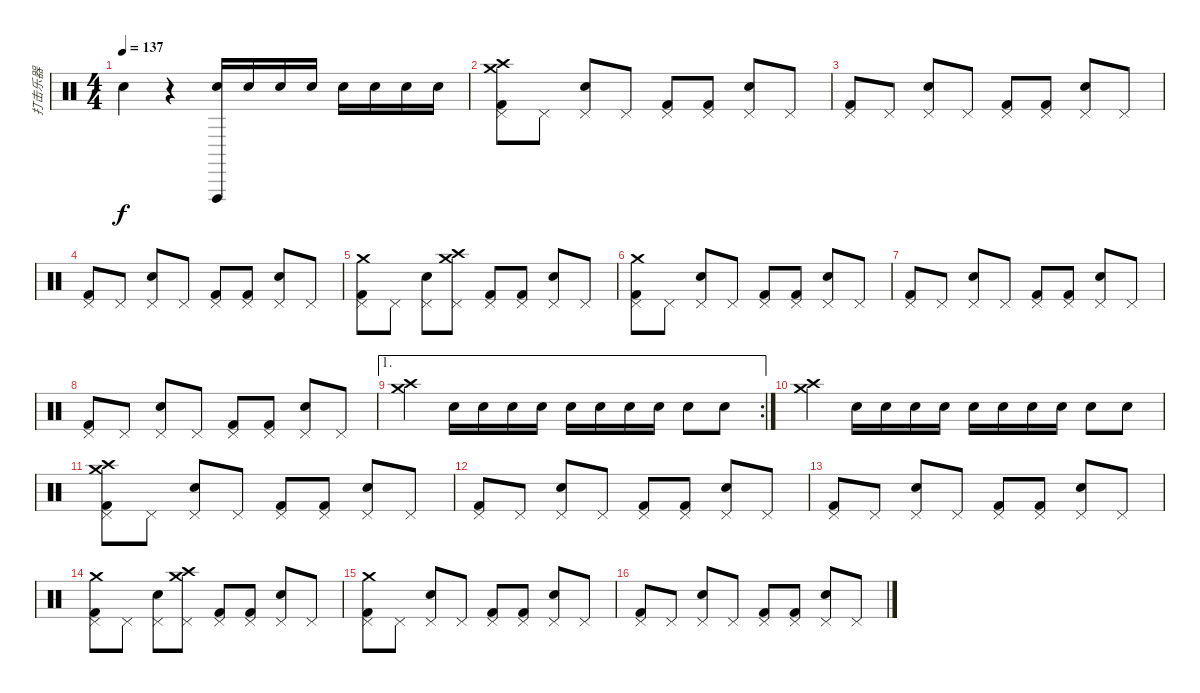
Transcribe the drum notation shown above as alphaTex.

\track ("打击乐器" "打击乐器") {instrument percussion}
\staff {score}
\articulation defaults
\ts (4 4)
\tempo 137
\clef neutral
\ks c "Snare (hit) 2".4{dy f}
r.4 ("Vibraslap (hit)" "Electric Snare (hit)").16 "Electric Snare (hit)".16 "Electric Snare (hit)".16 "Electric Snare (hit)".16 "Electric Snare (hit)".16 "Electric Snare (hit)".16 "Snare (hit) 2".16 "Electric Snare (hit)".16 |
("Crash high (hit)" "Crash medium (hit)" "Pedal Hi-Hat (hit)" "Kick (hit) 2").8 "Pedal Hi-Hat (hit)".8 ("Snare (hit) 2" "Pedal Hi-Hat (hit)").8 "Pedal Hi-Hat (hit)".8 ("Pedal Hi-Hat (hit)" "Kick (hit) 2").8 ("Pedal Hi-Hat (hit)" "Kick (hit) 2").8 ("Snare (hit) 2" "Pedal Hi-Hat (hit)").8 "Pedal Hi-Hat (hit)".8 |
("Pedal Hi-Hat (hit)" "Kick (hit) 2").8 "Pedal Hi-Hat (hit)".8 ("Snare (hit) 2" "Pedal Hi-Hat (hit)").8 "Pedal Hi-Hat (hit)".8 ("Pedal Hi-Hat (hit)" "Kick (hit) 2").8 ("Pedal Hi-Hat (hit)" "Kick (hit) 2").8 ("Snare (hit) 2" "Pedal Hi-Hat (hit)").8 "Pedal Hi-Hat (hit)".8 |
("Pedal Hi-Hat (hit)" "Kick (hit) 2").8 "Pedal Hi-Hat (hit)".8 ("Snare (hit) 2" "Pedal Hi-Hat (hit)").8 "Pedal Hi-Hat (hit)".8 ("Pedal Hi-Hat (hit)" "Kick (hit) 2").8 ("Pedal Hi-Hat (hit)" "Kick (hit) 2").8 ("Snare (hit) 2" "Pedal Hi-Hat (hit)").8 "Pedal Hi-Hat (hit)".8 |
("Crash medium (hit)" "Pedal Hi-Hat (hit)" "Kick (hit) 2").8 "Pedal Hi-Hat (hit)".8 ("Snare (hit) 2" "Pedal Hi-Hat (hit)").8 ("Crash medium (hit)" "Crash high (hit)" "Pedal Hi-Hat (hit)").8 ("Pedal Hi-Hat (hit)" "Kick (hit) 2").8 ("Pedal Hi-Hat (hit)" "Kick (hit) 2").8 ("Snare (hit) 2" "Pedal Hi-Hat (hit)").8 "Pedal Hi-Hat (hit)".8 |
("Crash medium (hit)" "Pedal Hi-Hat (hit)" "Kick (hit) 2").8 "Pedal Hi-Hat (hit)".8 ("Snare (hit) 2" "Pedal Hi-Hat (hit)").8 "Pedal Hi-Hat (hit)".8 ("Pedal Hi-Hat (hit)" "Kick (hit) 2").8 ("Pedal Hi-Hat (hit)" "Kick (hit) 2").8 ("Snare (hit) 2" "Pedal Hi-Hat (hit)").8 "Pedal Hi-Hat (hit)".8 |
("Pedal Hi-Hat (hit)" "Kick (hit) 2").8 "Pedal Hi-Hat (hit)".8 ("Snare (hit) 2" "Pedal Hi-Hat (hit)").8 "Pedal Hi-Hat (hit)".8 ("Pedal Hi-Hat (hit)" "Kick (hit) 2").8 ("Pedal Hi-Hat (hit)" "Kick (hit) 2").8 ("Snare (hit) 2" "Pedal Hi-Hat (hit)").8 "Pedal Hi-Hat (hit)".8 |
("Pedal Hi-Hat (hit)" "Kick (hit) 2").8 "Pedal Hi-Hat (hit)".8 ("Snare (hit) 2" "Pedal Hi-Hat (hit)").8 "Pedal Hi-Hat (hit)".8 ("Pedal Hi-Hat (hit)" "Kick (hit) 2").8 ("Pedal Hi-Hat (hit)" "Kick (hit) 2").8 ("Snare (hit) 2" "Pedal Hi-Hat (hit)").8 "Pedal Hi-Hat (hit)".8 |
\ae 1
\rc 2
("Crash high (hit)" "Crash medium (hit)").4 "Electric Snare (hit)".16 "Electric Snare (hit)".16 "Electric Snare (hit)".16 "Electric Snare (hit)".16 "Electric Snare (hit)".16 "Electric Snare (hit)".16 "Electric Snare (hit)".16 "Electric Snare (hit)".16 "Electric Snare (hit)".8 "Snare (hit) 2".8 |
("Crash high (hit)" "Crash medium (hit)").4 "Electric Snare (hit)".16 "Electric Snare (hit)".16 "Electric Snare (hit)".16 "Electric Snare (hit)".16 "Electric Snare (hit)".16 "Electric Snare (hit)".16 "Electric Snare (hit)".16 "Electric Snare (hit)".16 "Electric Snare (hit)".8 "Snare (hit) 2".8 |
("Crash high (hit)" "Crash medium (hit)" "Pedal Hi-Hat (hit)" "Kick (hit) 2").8 "Pedal Hi-Hat (hit)".8 ("Snare (hit) 2" "Pedal Hi-Hat (hit)").8 "Pedal Hi-Hat (hit)".8 ("Pedal Hi-Hat (hit)" "Kick (hit) 2").8 ("Pedal Hi-Hat (hit)" "Kick (hit) 2").8 ("Snare (hit) 2" "Pedal Hi-Hat (hit)").8 "Pedal Hi-Hat (hit)".8 |
("Pedal Hi-Hat (hit)" "Kick (hit) 2").8 "Pedal Hi-Hat (hit)".8 ("Snare (hit) 2" "Pedal Hi-Hat (hit)").8 "Pedal Hi-Hat (hit)".8 ("Pedal Hi-Hat (hit)" "Kick (hit) 2").8 ("Pedal Hi-Hat (hit)" "Kick (hit) 2").8 ("Snare (hit) 2" "Pedal Hi-Hat (hit)").8 "Pedal Hi-Hat (hit)".8 |
("Pedal Hi-Hat (hit)" "Kick (hit) 2").8 "Pedal Hi-Hat (hit)".8 ("Snare (hit) 2" "Pedal Hi-Hat (hit)").8 "Pedal Hi-Hat (hit)".8 ("Pedal Hi-Hat (hit)" "Kick (hit) 2").8 ("Pedal Hi-Hat (hit)" "Kick (hit) 2").8 ("Snare (hit) 2" "Pedal Hi-Hat (hit)").8 "Pedal Hi-Hat (hit)".8 |
("Crash medium (hit)" "Pedal Hi-Hat (hit)" "Kick (hit) 2").8 "Pedal Hi-Hat (hit)".8 ("Snare (hit) 2" "Pedal Hi-Hat (hit)").8 ("Crash medium (hit)" "Crash high (hit)" "Pedal Hi-Hat (hit)").8 ("Pedal Hi-Hat (hit)" "Kick (hit) 2").8 ("Pedal Hi-Hat (hit)" "Kick (hit) 2").8 ("Snare (hit) 2" "Pedal Hi-Hat (hit)").8 "Pedal Hi-Hat (hit)".8 |
("Crash medium (hit)" "Pedal Hi-Hat (hit)" "Kick (hit) 2").8 "Pedal Hi-Hat (hit)".8 ("Snare (hit) 2" "Pedal Hi-Hat (hit)").8 "Pedal Hi-Hat (hit)".8 ("Pedal Hi-Hat (hit)" "Kick (hit) 2").8 ("Pedal Hi-Hat (hit)" "Kick (hit) 2").8 ("Snare (hit) 2" "Pedal Hi-Hat (hit)").8 "Pedal Hi-Hat (hit)".8 |
("Pedal Hi-Hat (hit)" "Kick (hit) 2").8 "Pedal Hi-Hat (hit)".8 ("Snare (hit) 2" "Pedal Hi-Hat (hit)").8 "Pedal Hi-Hat (hit)".8 ("Pedal Hi-Hat (hit)" "Kick (hit) 2").8 ("Pedal Hi-Hat (hit)" "Kick (hit) 2").8 ("Snare (hit) 2" "Pedal Hi-Hat (hit)").8 "Pedal Hi-Hat (hit)".8
